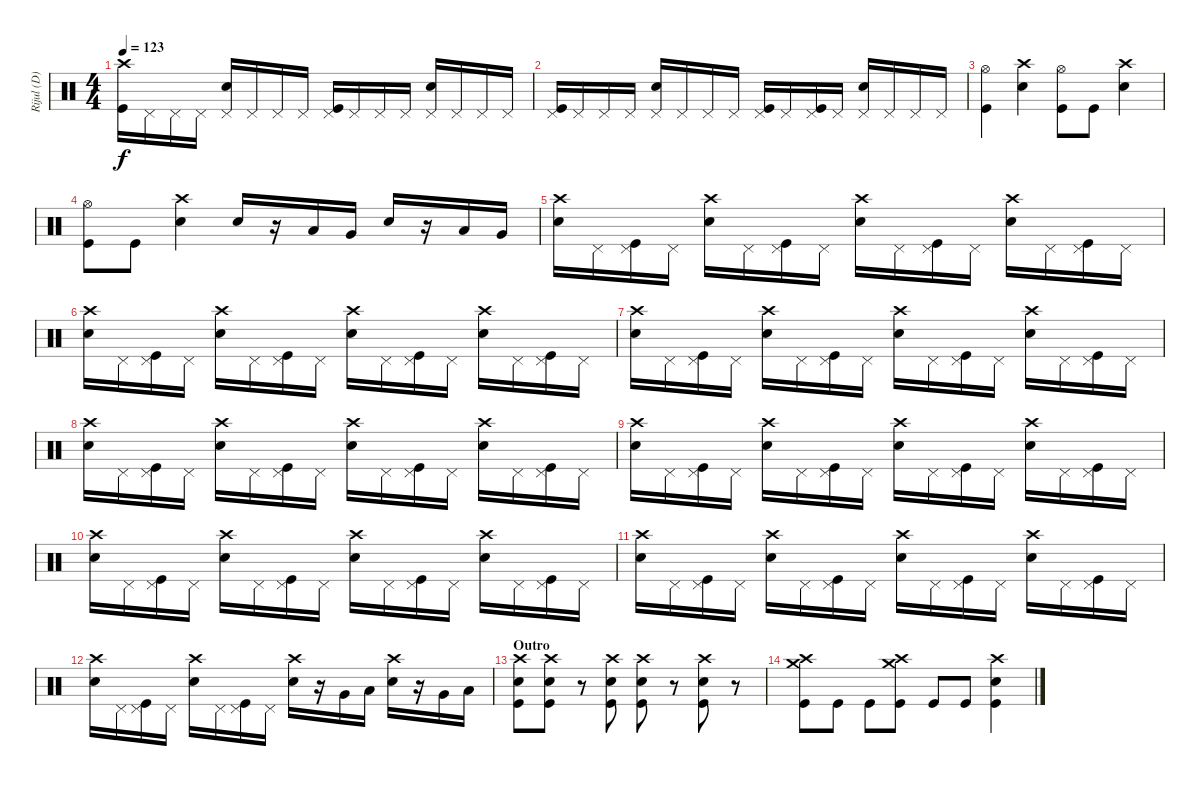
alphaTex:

\track ("Rijul (D)" "Rijul (D)") {instrument percussion}
\staff {score}
\articulation defaults
\ts (4 4)
\tempo 123
\clef neutral
\ks c
("Crash high (hit)" "Kick (hit)").16{dy f} "Pedal Hi-Hat (hit)".16 "Pedal Hi-Hat (hit)".16 "Pedal Hi-Hat (hit)".16 ("Pedal Hi-Hat (hit)" "Snare (hit) 2").16 "Pedal Hi-Hat (hit)".16 "Pedal Hi-Hat (hit)".16 "Pedal Hi-Hat (hit)".16 ("Pedal Hi-Hat (hit)" "Kick (hit)").16 "Pedal Hi-Hat (hit)".16 "Pedal Hi-Hat (hit)".16 "Pedal Hi-Hat (hit)".16 ("Pedal Hi-Hat (hit)" "Snare (hit) 2").16 "Pedal Hi-Hat (hit)".16 "Pedal Hi-Hat (hit)".16 "Pedal Hi-Hat (hit)".16 |
("Pedal Hi-Hat (hit)" "Kick (hit)").16 "Pedal Hi-Hat (hit)".16 "Pedal Hi-Hat (hit)".16 "Pedal Hi-Hat (hit)".16 ("Pedal Hi-Hat (hit)" "Snare (hit) 2").16 "Pedal Hi-Hat (hit)".16 "Pedal Hi-Hat (hit)".16 "Pedal Hi-Hat (hit)".16 ("Pedal Hi-Hat (hit)" "Kick (hit)").16 "Pedal Hi-Hat (hit)".16 ("Pedal Hi-Hat (hit)" "Kick (hit)").16 "Pedal Hi-Hat (hit)".16 ("Pedal Hi-Hat (hit)" "Snare (hit) 2").16 "Pedal Hi-Hat (hit)".16 "Pedal Hi-Hat (hit)".16 "Pedal Hi-Hat (hit)".16 |
("Hi-Hat (open)" "Kick (hit)").4 ("Crash high (hit)" "Snare (hit) 2").4 ("Hi-Hat (open)" "Kick (hit)").8 "Kick (hit)".8 ("Crash high (hit)" "Snare (hit) 2").4 |
("Hi-Hat (open)" "Kick (hit)").8 "Kick (hit)".8 ("Crash high (hit)" "Snare (hit) 2").4 "Snare (hit) 2".16 r.16 "Low Tom (hit)".16 "Very Low Tom (hit)".16 "Snare (hit) 2".16 r.16 "Low Tom (hit)".16 "Very Low Tom (hit)".16 |
("Crash high (hit)" "Snare (hit) 2").16 "Pedal Hi-Hat (hit)".16 ("Pedal Hi-Hat (hit)" "Kick (hit)").16 "Pedal Hi-Hat (hit)".16 ("Crash high (hit)" "Snare (hit) 2").16 "Pedal Hi-Hat (hit)".16 ("Pedal Hi-Hat (hit)" "Kick (hit)").16 "Pedal Hi-Hat (hit)".16 ("Crash high (hit)" "Snare (hit) 2").16 "Pedal Hi-Hat (hit)".16 ("Pedal Hi-Hat (hit)" "Kick (hit)").16 "Pedal Hi-Hat (hit)".16 ("Crash high (hit)" "Snare (hit) 2").16 "Pedal Hi-Hat (hit)".16 ("Pedal Hi-Hat (hit)" "Kick (hit)").16 "Pedal Hi-Hat (hit)".16 |
("Crash high (hit)" "Snare (hit) 2").16 "Pedal Hi-Hat (hit)".16 ("Pedal Hi-Hat (hit)" "Kick (hit)").16 "Pedal Hi-Hat (hit)".16 ("Crash high (hit)" "Snare (hit) 2").16 "Pedal Hi-Hat (hit)".16 ("Pedal Hi-Hat (hit)" "Kick (hit)").16 "Pedal Hi-Hat (hit)".16 ("Crash high (hit)" "Snare (hit) 2").16 "Pedal Hi-Hat (hit)".16 ("Pedal Hi-Hat (hit)" "Kick (hit)").16 "Pedal Hi-Hat (hit)".16 ("Crash high (hit)" "Snare (hit) 2").16 "Pedal Hi-Hat (hit)".16 ("Pedal Hi-Hat (hit)" "Kick (hit)").16 "Pedal Hi-Hat (hit)".16 |
("Crash high (hit)" "Snare (hit) 2").16 "Pedal Hi-Hat (hit)".16 ("Pedal Hi-Hat (hit)" "Kick (hit)").16 "Pedal Hi-Hat (hit)".16 ("Crash high (hit)" "Snare (hit) 2").16 "Pedal Hi-Hat (hit)".16 ("Pedal Hi-Hat (hit)" "Kick (hit)").16 "Pedal Hi-Hat (hit)".16 ("Crash high (hit)" "Snare (hit) 2").16 "Pedal Hi-Hat (hit)".16 ("Pedal Hi-Hat (hit)" "Kick (hit)").16 "Pedal Hi-Hat (hit)".16 ("Crash high (hit)" "Snare (hit) 2").16 "Pedal Hi-Hat (hit)".16 ("Pedal Hi-Hat (hit)" "Kick (hit)").16 "Pedal Hi-Hat (hit)".16 |
("Crash high (hit)" "Snare (hit) 2").16 "Pedal Hi-Hat (hit)".16 ("Pedal Hi-Hat (hit)" "Kick (hit)").16 "Pedal Hi-Hat (hit)".16 ("Crash high (hit)" "Snare (hit) 2").16 "Pedal Hi-Hat (hit)".16 ("Pedal Hi-Hat (hit)" "Kick (hit)").16 "Pedal Hi-Hat (hit)".16 ("Crash high (hit)" "Snare (hit) 2").16 "Pedal Hi-Hat (hit)".16 ("Pedal Hi-Hat (hit)" "Kick (hit)").16 "Pedal Hi-Hat (hit)".16 ("Crash high (hit)" "Snare (hit) 2").16 "Pedal Hi-Hat (hit)".16 ("Pedal Hi-Hat (hit)" "Kick (hit)").16 "Pedal Hi-Hat (hit)".16 |
("Crash high (hit)" "Snare (hit) 2").16 "Pedal Hi-Hat (hit)".16 ("Pedal Hi-Hat (hit)" "Kick (hit)").16 "Pedal Hi-Hat (hit)".16 ("Crash high (hit)" "Snare (hit) 2").16 "Pedal Hi-Hat (hit)".16 ("Pedal Hi-Hat (hit)" "Kick (hit)").16 "Pedal Hi-Hat (hit)".16 ("Crash high (hit)" "Snare (hit) 2").16 "Pedal Hi-Hat (hit)".16 ("Pedal Hi-Hat (hit)" "Kick (hit)").16 "Pedal Hi-Hat (hit)".16 ("Crash high (hit)" "Snare (hit) 2").16 "Pedal Hi-Hat (hit)".16 ("Pedal Hi-Hat (hit)" "Kick (hit)").16 "Pedal Hi-Hat (hit)".16 |
("Crash high (hit)" "Snare (hit) 2").16 "Pedal Hi-Hat (hit)".16 ("Pedal Hi-Hat (hit)" "Kick (hit)").16 "Pedal Hi-Hat (hit)".16 ("Crash high (hit)" "Snare (hit) 2").16 "Pedal Hi-Hat (hit)".16 ("Pedal Hi-Hat (hit)" "Kick (hit)").16 "Pedal Hi-Hat (hit)".16 ("Crash high (hit)" "Snare (hit) 2").16 "Pedal Hi-Hat (hit)".16 ("Pedal Hi-Hat (hit)" "Kick (hit)").16 "Pedal Hi-Hat (hit)".16 ("Crash high (hit)" "Snare (hit) 2").16 "Pedal Hi-Hat (hit)".16 ("Pedal Hi-Hat (hit)" "Kick (hit)").16 "Pedal Hi-Hat (hit)".16 |
("Crash high (hit)" "Snare (hit) 2").16 "Pedal Hi-Hat (hit)".16 ("Pedal Hi-Hat (hit)" "Kick (hit)").16 "Pedal Hi-Hat (hit)".16 ("Crash high (hit)" "Snare (hit) 2").16 "Pedal Hi-Hat (hit)".16 ("Pedal Hi-Hat (hit)" "Kick (hit)").16 "Pedal Hi-Hat (hit)".16 ("Crash high (hit)" "Snare (hit) 2").16 "Pedal Hi-Hat (hit)".16 ("Pedal Hi-Hat (hit)" "Kick (hit)").16 "Pedal Hi-Hat (hit)".16 ("Crash high (hit)" "Snare (hit) 2").16 "Pedal Hi-Hat (hit)".16 ("Pedal Hi-Hat (hit)" "Kick (hit)").16 "Pedal Hi-Hat (hit)".16 |
("Crash high (hit)" "Snare (hit) 2").16 "Pedal Hi-Hat (hit)".16 ("Pedal Hi-Hat (hit)" "Kick (hit)").16 "Pedal Hi-Hat (hit)".16 ("Crash high (hit)" "Snare (hit) 2").16 "Pedal Hi-Hat (hit)".16 ("Pedal Hi-Hat (hit)" "Kick (hit)").16 "Pedal Hi-Hat (hit)".16 ("Crash high (hit)" "Snare (hit) 2").16 r.16 "Very Low Tom (hit)".16 "Low Tom (hit)".16 ("Crash high (hit)" "Snare (hit) 2").16 r.16 "Very Low Tom (hit)".16 "Low Tom (hit)".16 |
\section ("" "Outro")
("Crash high (hit)" "Snare (hit) 2" "Kick (hit)").8 ("Crash high (hit)" "Snare (hit) 2" "Kick (hit)").8 r.8 ("Crash high (hit)" "Snare (hit) 2" "Kick (hit)").8 ("Crash high (hit)" "Snare (hit) 2" "Kick (hit)").8 r.8 ("Crash high (hit)" "Snare (hit) 2" "Kick (hit)").8 r.8 |
("Crash high (hit)" "Crash medium (hit)" "Kick (hit)").8 "Kick (hit)".8 "Kick (hit)".8 ("Crash high (hit)" "Crash medium (hit)" "Kick (hit)").8 "Kick (hit)".8 "Kick (hit)".8 ("Crash high (hit)" "Snare (hit) 2" "Kick (hit)").4
